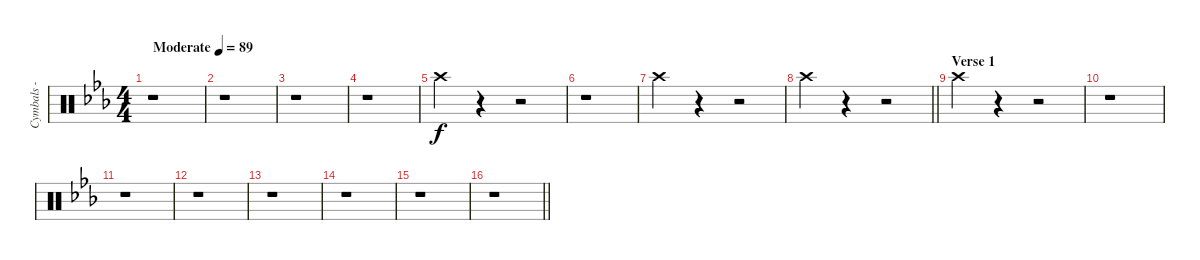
\track ("Cymbals - crash" "Cymbals - ") {instrument percussion}
\staff {score}
\articulation defaults
\ts (4 4)
\tempo (89 "Moderate")
\clef neutral
\ks eb
r.1{dy f volume 8} |
r.1 |
r.1 |
r.1 |
"Crash high (hit)".4 r.4 r.2 |
r.1 |
"Crash high (hit)".4 r.4 r.2 |
\barLineRight lightlight "Crash high (hit)".4
r.4 r.2 |
\section ("" "Verse 1")
"Crash high (hit)".4 r.4 r.2 |
r.1 |
r.1 |
r.1 |
r.1 |
r.1 |
r.1 |
\barLineRight lightlight
r.1
